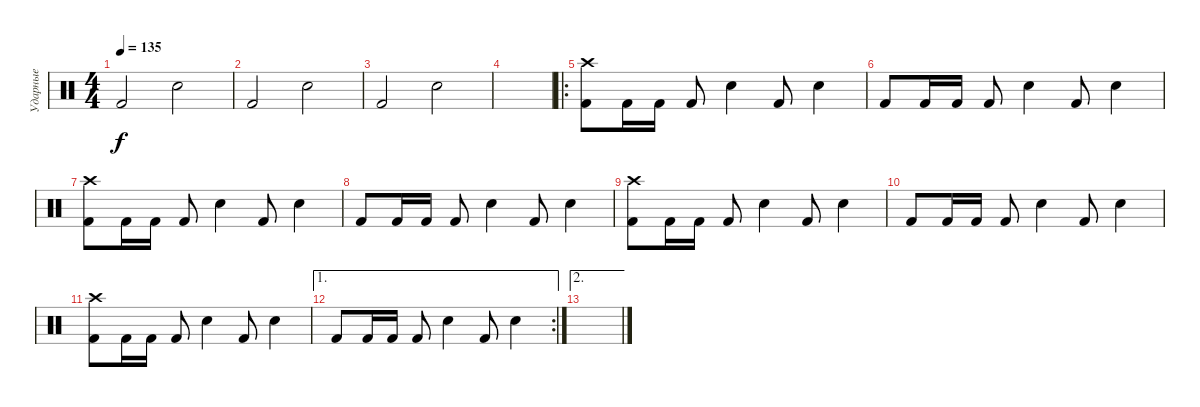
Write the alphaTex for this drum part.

\track ("Ударные" "Ударные") {instrument percussion}
\staff {score}
\articulation defaults
\ts (4 4)
\tempo 135
\clef neutral
\ks c "Kick (hit) 2".2{dy f} "Snare (hit) 2".2
|
"Kick (hit) 2".2 "Snare (hit) 2".2 |
"Kick (hit) 2".2 "Snare (hit) 2".2 |
|
\ro
("Crash high (hit)" "Kick (hit) 2").8 "Kick (hit) 2".16 "Kick (hit) 2".16 "Kick (hit) 2".8 "Electric Snare (hit)".4 "Kick (hit) 2".8 "Electric Snare (hit)".4 |
"Kick (hit) 2".8 "Kick (hit) 2".16 "Kick (hit) 2".16 "Kick (hit) 2".8 "Electric Snare (hit)".4 "Kick (hit) 2".8 "Electric Snare (hit)".4 |
("Crash high (hit)" "Kick (hit) 2").8 "Kick (hit) 2".16 "Kick (hit) 2".16 "Kick (hit) 2".8 "Electric Snare (hit)".4 "Kick (hit) 2".8 "Electric Snare (hit)".4 |
"Kick (hit) 2".8 "Kick (hit) 2".16 "Kick (hit) 2".16 "Kick (hit) 2".8 "Electric Snare (hit)".4 "Kick (hit) 2".8 "Electric Snare (hit)".4 |
("Crash high (hit)" "Kick (hit) 2").8 "Kick (hit) 2".16 "Kick (hit) 2".16 "Kick (hit) 2".8 "Electric Snare (hit)".4 "Kick (hit) 2".8 "Electric Snare (hit)".4 |
"Kick (hit) 2".8 "Kick (hit) 2".16 "Kick (hit) 2".16 "Kick (hit) 2".8 "Electric Snare (hit)".4 "Kick (hit) 2".8 "Electric Snare (hit)".4 |
("Crash high (hit)" "Kick (hit) 2").8 "Kick (hit) 2".16 "Kick (hit) 2".16 "Kick (hit) 2".8 "Electric Snare (hit)".4 "Kick (hit) 2".8 "Electric Snare (hit)".4 |
\ae 1
\rc 2 "Kick (hit) 2".8 "Kick (hit) 2".16 "Kick (hit) 2".16 "Kick (hit) 2".8 "Electric Snare (hit)".4 "Kick (hit) 2".8 "Electric Snare (hit)".4
|
\ae 2
